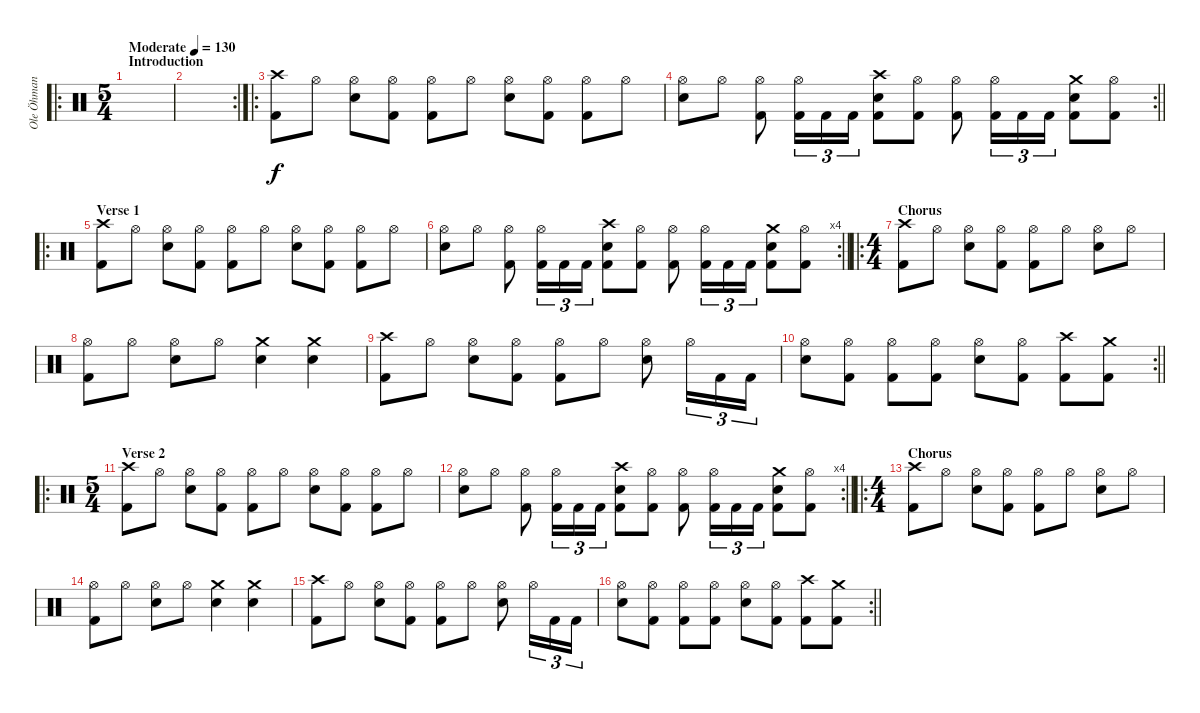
\track ("Ole Öhman" "Ole Öhman") {instrument percussion}
\staff {score}
\articulation defaults
\ro
\ts (5 4)
\section ("" "Introduction")
\tempo (130 "Moderate")
\clef neutral
\ks c
|
\rc 2
|
\ro
("Crash high (hit)" "Kick (hit) 2").8 "Hi-Hat (open)".8 ("Hi-Hat (open)" "Electric Snare (hit)").8 ("Hi-Hat (open)" "Kick (hit) 2").8 ("Hi-Hat (open)" "Kick (hit) 2").8 "Hi-Hat (open)".8 ("Hi-Hat (open)" "Electric Snare (hit)").8 ("Hi-Hat (open)" "Kick (hit) 2").8 ("Hi-Hat (open)" "Kick (hit) 2").8 "Hi-Hat (open)".8 |
\rc 2
\barLineRight lightlight
("Hi-Hat (open)" "Electric Snare (hit)").8 "Hi-Hat (open)".8 ("Hi-Hat (open)" "Kick (hit) 2").8 ("Hi-Hat (open)" "Kick (hit) 2").16{tu (3 2)} "Kick (hit) 2".16{tu (3 2)} "Kick (hit) 2".16{tu (3 2)} ("Crash high (hit)" "Electric Snare (hit)" "Kick (hit) 2").8 ("Hi-Hat (open)" "Kick (hit) 2").8 ("Hi-Hat (open)" "Kick (hit) 2").8 ("Hi-Hat (open)" "Kick (hit) 2").16{tu (3 2)} "Kick (hit) 2".16{tu (3 2)} "Kick (hit) 2".16{tu (3 2)} ("Crash medium (hit)" "Electric Snare (hit)" "Kick (hit) 2").8 ("Hi-Hat (open)" "Kick (hit) 2").8 |
\ro
\section ("" "Verse 1")
("Crash high (hit)" "Kick (hit) 2").8 "Hi-Hat (open)".8 ("Hi-Hat (open)" "Electric Snare (hit)").8 ("Hi-Hat (open)" "Kick (hit) 2").8 ("Hi-Hat (open)" "Kick (hit) 2").8 "Hi-Hat (open)".8 ("Hi-Hat (open)" "Electric Snare (hit)").8 ("Hi-Hat (open)" "Kick (hit) 2").8 ("Hi-Hat (open)" "Kick (hit) 2").8 "Hi-Hat (open)".8 |
\rc 4
\barLineRight lightlight
("Hi-Hat (open)" "Electric Snare (hit)").8 "Hi-Hat (open)".8 ("Hi-Hat (open)" "Kick (hit) 2").8 ("Hi-Hat (open)" "Kick (hit) 2").16{tu (3 2)} "Kick (hit) 2".16{tu (3 2)} "Kick (hit) 2".16{tu (3 2)} ("Crash high (hit)" "Electric Snare (hit)" "Kick (hit) 2").8 ("Hi-Hat (open)" "Kick (hit) 2").8 ("Hi-Hat (open)" "Kick (hit) 2").8 ("Hi-Hat (open)" "Kick (hit) 2").16{tu (3 2)} "Kick (hit) 2".16{tu (3 2)} "Kick (hit) 2".16{tu (3 2)} ("Crash medium (hit)" "Electric Snare (hit)" "Kick (hit) 2").8 ("Hi-Hat (open)" "Kick (hit) 2").8 |
\ro
\ts (4 4)
\section ("" "Chorus")
("Crash high (hit)" "Kick (hit) 2").8 "Hi-Hat (open)".8 ("Hi-Hat (open)" "Electric Snare (hit)").8 ("Hi-Hat (open)" "Kick (hit) 2").8 ("Hi-Hat (open)" "Kick (hit) 2").8 "Hi-Hat (open)".8 ("Hi-Hat (open)" "Electric Snare (hit)").8 "Hi-Hat (open)".8 |
("Hi-Hat (open)" "Kick (hit) 2").8 "Hi-Hat (open)".8 ("Hi-Hat (open)" "Electric Snare (hit)").8 "Hi-Hat (open)".8 ("Crash medium (hit)" "Electric Snare (hit)").4 ("Crash medium (hit)" "Electric Snare (hit)").4 |
("Crash high (hit)" "Kick (hit) 2").8 "Hi-Hat (open)".8 ("Hi-Hat (open)" "Electric Snare (hit)").8 ("Hi-Hat (open)" "Kick (hit) 2").8 ("Hi-Hat (open)" "Kick (hit) 2").8 "Hi-Hat (open)".8 ("Hi-Hat (open)" "Electric Snare (hit)").8 "Hi-Hat (open)".16{tu (3 2)} "Kick (hit) 2".16{tu (3 2)} "Kick (hit) 2".16{tu (3 2)} |
\rc 2
\barLineRight lightlight
("Hi-Hat (open)" "Electric Snare (hit)").8 ("Hi-Hat (open)" "Kick (hit) 2").8 ("Hi-Hat (open)" "Kick (hit) 2").8 ("Hi-Hat (open)" "Kick (hit) 2").8 ("Hi-Hat (open)" "Electric Snare (hit)").8 ("Hi-Hat (open)" "Kick (hit) 2").8 ("Crash high (hit)" "Kick (hit) 2").8 ("Crash medium (hit)" "Kick (hit) 2").8 |
\ro
\ts (5 4)
\section ("" "Verse 2")
("Crash high (hit)" "Kick (hit) 2").8 "Hi-Hat (open)".8 ("Hi-Hat (open)" "Electric Snare (hit)").8 ("Hi-Hat (open)" "Kick (hit) 2").8 ("Hi-Hat (open)" "Kick (hit) 2").8 "Hi-Hat (open)".8 ("Hi-Hat (open)" "Electric Snare (hit)").8 ("Hi-Hat (open)" "Kick (hit) 2").8 ("Hi-Hat (open)" "Kick (hit) 2").8 "Hi-Hat (open)".8 |
\rc 4
\barLineRight lightlight
("Hi-Hat (open)" "Electric Snare (hit)").8 "Hi-Hat (open)".8 ("Hi-Hat (open)" "Kick (hit) 2").8 ("Hi-Hat (open)" "Kick (hit) 2").16{tu (3 2)} "Kick (hit) 2".16{tu (3 2)} "Kick (hit) 2".16{tu (3 2)} ("Crash high (hit)" "Electric Snare (hit)" "Kick (hit) 2").8 ("Hi-Hat (open)" "Kick (hit) 2").8 ("Hi-Hat (open)" "Kick (hit) 2").8 ("Hi-Hat (open)" "Kick (hit) 2").16{tu (3 2)} "Kick (hit) 2".16{tu (3 2)} "Kick (hit) 2".16{tu (3 2)} ("Crash medium (hit)" "Electric Snare (hit)" "Kick (hit) 2").8 ("Hi-Hat (open)" "Kick (hit) 2").8 |
\ro
\ts (4 4)
\section ("" "Chorus")
("Crash high (hit)" "Kick (hit) 2").8 "Hi-Hat (open)".8 ("Hi-Hat (open)" "Electric Snare (hit)").8 ("Hi-Hat (open)" "Kick (hit) 2").8 ("Hi-Hat (open)" "Kick (hit) 2").8 "Hi-Hat (open)".8 ("Hi-Hat (open)" "Electric Snare (hit)").8 "Hi-Hat (open)".8 |
("Hi-Hat (open)" "Kick (hit) 2").8 "Hi-Hat (open)".8 ("Hi-Hat (open)" "Electric Snare (hit)").8 "Hi-Hat (open)".8 ("Crash medium (hit)" "Electric Snare (hit)").4 ("Crash medium (hit)" "Electric Snare (hit)").4 |
("Crash high (hit)" "Kick (hit) 2").8 "Hi-Hat (open)".8 ("Hi-Hat (open)" "Electric Snare (hit)").8 ("Hi-Hat (open)" "Kick (hit) 2").8 ("Hi-Hat (open)" "Kick (hit) 2").8 "Hi-Hat (open)".8 ("Hi-Hat (open)" "Electric Snare (hit)").8 "Hi-Hat (open)".16{tu (3 2)} "Kick (hit) 2".16{tu (3 2)} "Kick (hit) 2".16{tu (3 2)} |
\rc 2
\barLineRight lightlight
("Hi-Hat (open)" "Electric Snare (hit)").8 ("Hi-Hat (open)" "Kick (hit) 2").8 ("Hi-Hat (open)" "Kick (hit) 2").8 ("Hi-Hat (open)" "Kick (hit) 2").8 ("Hi-Hat (open)" "Electric Snare (hit)").8 ("Hi-Hat (open)" "Kick (hit) 2").8 ("Crash high (hit)" "Kick (hit) 2").8 ("Crash medium (hit)" "Kick (hit) 2").8
